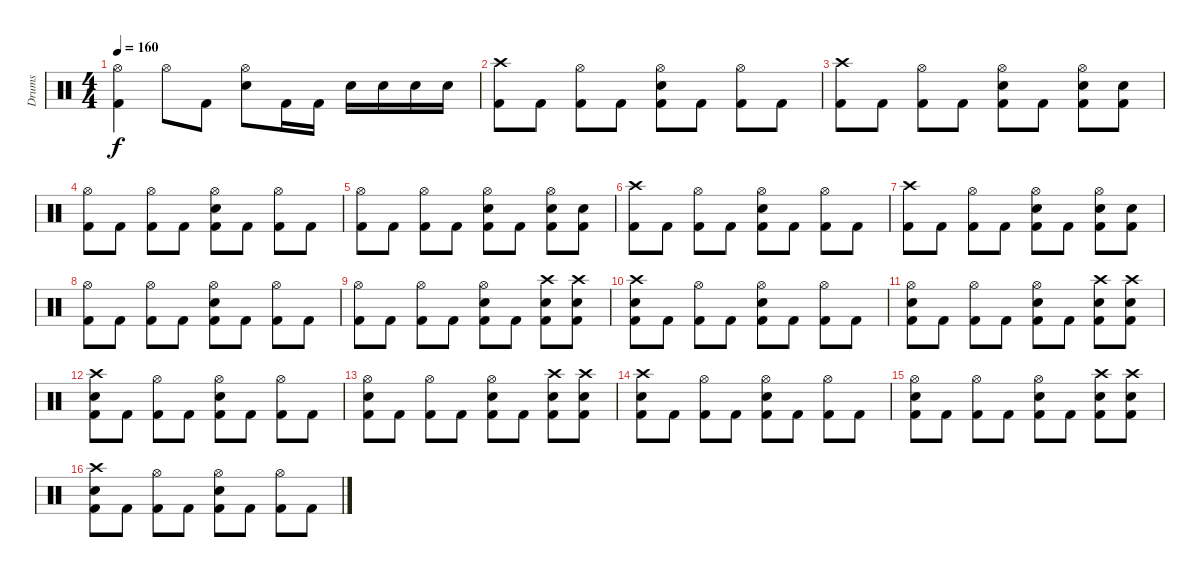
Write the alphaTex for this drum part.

\track ("Drums" "Drums") {instrument percussion}
\staff {score}
\articulation defaults
\ts (4 4)
\tempo 160
\clef neutral
\ks c
("Hi-Hat (open)" "Kick (hit) 2").4{dy f} "Hi-Hat (open)".8 "Kick (hit) 2".8 ("Hi-Hat (open)" "Snare (hit) 2").8 "Kick (hit) 2".16 "Kick (hit) 2".16 "Snare (hit) 2".16 "Snare (hit) 2".16 "Snare (hit) 2".16 "Snare (hit) 2".16 |
("Crash high (hit)" "Kick (hit) 2").8 "Kick (hit) 2".8 ("Hi-Hat (open)" "Kick (hit) 2").8 "Kick (hit) 2".8 ("Hi-Hat (open)" "Snare (hit) 2" "Kick (hit) 2").8 "Kick (hit) 2".8 ("Hi-Hat (open)" "Kick (hit) 2").8 "Kick (hit) 2".8 |
("Crash high (hit)" "Kick (hit) 2").8 "Kick (hit) 2".8 ("Hi-Hat (open)" "Kick (hit) 2").8 "Kick (hit) 2".8 ("Hi-Hat (open)" "Snare (hit) 2" "Kick (hit) 2").8 "Kick (hit) 2".8 ("Hi-Hat (open)" "Snare (hit) 2" "Kick (hit) 2").8 ("Snare (hit) 2" "Kick (hit) 2").8 |
("Hi-Hat (open)" "Kick (hit) 2").8 "Kick (hit) 2".8 ("Hi-Hat (open)" "Kick (hit) 2").8 "Kick (hit) 2".8 ("Hi-Hat (open)" "Snare (hit) 2" "Kick (hit) 2").8 "Kick (hit) 2".8 ("Hi-Hat (open)" "Kick (hit) 2").8 "Kick (hit) 2".8 |
("Hi-Hat (open)" "Kick (hit) 2").8 "Kick (hit) 2".8 ("Hi-Hat (open)" "Kick (hit) 2").8 "Kick (hit) 2".8 ("Hi-Hat (open)" "Snare (hit) 2" "Kick (hit) 2").8 "Kick (hit) 2".8 ("Hi-Hat (open)" "Snare (hit) 2" "Kick (hit) 2").8 ("Snare (hit) 2" "Kick (hit) 2").8 |
("Crash high (hit)" "Kick (hit) 2").8 "Kick (hit) 2".8 ("Hi-Hat (open)" "Kick (hit) 2").8 "Kick (hit) 2".8 ("Hi-Hat (open)" "Snare (hit) 2" "Kick (hit) 2").8 "Kick (hit) 2".8 ("Hi-Hat (open)" "Kick (hit) 2").8 "Kick (hit) 2".8 |
("Crash high (hit)" "Kick (hit) 2").8 "Kick (hit) 2".8 ("Hi-Hat (open)" "Kick (hit) 2").8 "Kick (hit) 2".8 ("Hi-Hat (open)" "Snare (hit) 2" "Kick (hit) 2").8 "Kick (hit) 2".8 ("Hi-Hat (open)" "Snare (hit) 2" "Kick (hit) 2").8 ("Snare (hit) 2" "Kick (hit) 2").8 |
("Hi-Hat (open)" "Kick (hit) 2").8 "Kick (hit) 2".8 ("Hi-Hat (open)" "Kick (hit) 2").8 "Kick (hit) 2".8 ("Hi-Hat (open)" "Snare (hit) 2" "Kick (hit) 2").8 "Kick (hit) 2".8 ("Hi-Hat (open)" "Kick (hit) 2").8 "Kick (hit) 2".8 |
("Hi-Hat (open)" "Kick (hit) 2").8 "Kick (hit) 2".8 ("Hi-Hat (open)" "Kick (hit) 2").8 "Kick (hit) 2".8 ("Hi-Hat (open)" "Snare (hit) 2" "Kick (hit) 2").8 "Kick (hit) 2".8 ("Crash high (hit)" "Snare (hit) 2" "Kick (hit) 2").8 ("Crash high (hit)" "Snare (hit) 2" "Kick (hit) 2").8 |
("Crash high (hit)" "Snare (hit) 2" "Kick (hit) 2").8 "Kick (hit) 2".8 ("Hi-Hat (open)" "Kick (hit) 2").8 "Kick (hit) 2".8 ("Hi-Hat (open)" "Snare (hit) 2" "Kick (hit) 2").8 "Kick (hit) 2".8 ("Hi-Hat (open)" "Kick (hit) 2").8 "Kick (hit) 2".8 |
("Hi-Hat (open)" "Snare (hit) 2" "Kick (hit) 2").8 "Kick (hit) 2".8 ("Hi-Hat (open)" "Kick (hit) 2").8 "Kick (hit) 2".8 ("Hi-Hat (open)" "Snare (hit) 2" "Kick (hit) 2").8 "Kick (hit) 2".8 ("Crash high (hit)" "Snare (hit) 2" "Kick (hit) 2").8 ("Crash high (hit)" "Snare (hit) 2" "Kick (hit) 2").8 |
("Crash high (hit)" "Snare (hit) 2" "Kick (hit) 2").8 "Kick (hit) 2".8 ("Hi-Hat (open)" "Kick (hit) 2").8 "Kick (hit) 2".8 ("Hi-Hat (open)" "Snare (hit) 2" "Kick (hit) 2").8 "Kick (hit) 2".8 ("Hi-Hat (open)" "Kick (hit) 2").8 "Kick (hit) 2".8 |
("Hi-Hat (open)" "Snare (hit) 2" "Kick (hit) 2").8 "Kick (hit) 2".8 ("Hi-Hat (open)" "Kick (hit) 2").8 "Kick (hit) 2".8 ("Hi-Hat (open)" "Snare (hit) 2" "Kick (hit) 2").8 "Kick (hit) 2".8 ("Crash high (hit)" "Snare (hit) 2" "Kick (hit) 2").8 ("Crash high (hit)" "Snare (hit) 2" "Kick (hit) 2").8 |
("Crash high (hit)" "Snare (hit) 2" "Kick (hit) 2").8 "Kick (hit) 2".8 ("Hi-Hat (open)" "Kick (hit) 2").8 "Kick (hit) 2".8 ("Hi-Hat (open)" "Snare (hit) 2" "Kick (hit) 2").8 "Kick (hit) 2".8 ("Hi-Hat (open)" "Kick (hit) 2").8 "Kick (hit) 2".8 |
("Hi-Hat (open)" "Snare (hit) 2" "Kick (hit) 2").8 "Kick (hit) 2".8 ("Hi-Hat (open)" "Kick (hit) 2").8 "Kick (hit) 2".8 ("Hi-Hat (open)" "Snare (hit) 2" "Kick (hit) 2").8 "Kick (hit) 2".8 ("Crash high (hit)" "Snare (hit) 2" "Kick (hit) 2").8 ("Crash high (hit)" "Snare (hit) 2" "Kick (hit) 2").8 |
("Crash high (hit)" "Snare (hit) 2" "Kick (hit) 2").8 "Kick (hit) 2".8 ("Hi-Hat (open)" "Kick (hit) 2").8 "Kick (hit) 2".8 ("Hi-Hat (open)" "Snare (hit) 2" "Kick (hit) 2").8 "Kick (hit) 2".8 ("Hi-Hat (open)" "Kick (hit) 2").8 "Kick (hit) 2".8
